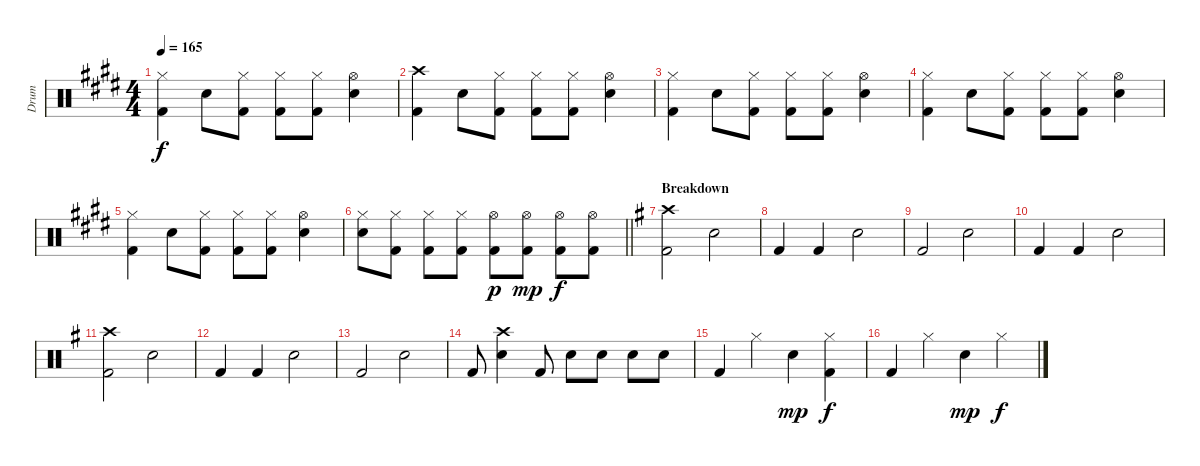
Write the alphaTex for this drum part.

\track ("Drum" "Drum") {instrument percussion}
\staff {score}
\articulation defaults
\ts (4 4)
\tempo 165
\clef neutral
\ks e
("Hi-Hat (closed)" "Kick (hit) 2").4{dy f} "Electric Snare (hit)".8 ("Hi-Hat (closed)" "Kick (hit) 2").8 ("Hi-Hat (closed)" "Kick (hit) 2").8 ("Hi-Hat (closed)" "Kick (hit) 2").8 ("Hi-Hat (open)" "Electric Snare (hit)").4 |
("Crash high (hit)" "Kick (hit) 2").4 "Electric Snare (hit)".8 ("Hi-Hat (closed)" "Kick (hit) 2").8 ("Hi-Hat (closed)" "Kick (hit) 2").8 ("Hi-Hat (closed)" "Kick (hit) 2").8 ("Hi-Hat (open)" "Electric Snare (hit)").4 |
("Hi-Hat (closed)" "Kick (hit) 2").4 "Electric Snare (hit)".8 ("Hi-Hat (closed)" "Kick (hit) 2").8 ("Hi-Hat (closed)" "Kick (hit) 2").8 ("Hi-Hat (closed)" "Kick (hit) 2").8 ("Hi-Hat (open)" "Electric Snare (hit)").4 |
("Hi-Hat (closed)" "Kick (hit) 2").4 "Electric Snare (hit)".8 ("Hi-Hat (closed)" "Kick (hit) 2").8 ("Hi-Hat (closed)" "Kick (hit) 2").8 ("Hi-Hat (closed)" "Kick (hit) 2").8 ("Hi-Hat (open)" "Electric Snare (hit)").4 |
("Hi-Hat (closed)" "Kick (hit) 2").4 "Electric Snare (hit)".8 ("Hi-Hat (closed)" "Kick (hit) 2").8 ("Hi-Hat (closed)" "Kick (hit) 2").8 ("Hi-Hat (closed)" "Kick (hit) 2").8 ("Hi-Hat (open)" "Electric Snare (hit)").4 |
\barLineRight lightlight
("Hi-Hat (closed)" "Electric Snare (hit)").8 ("Hi-Hat (closed)" "Kick (hit) 2").8 ("Hi-Hat (closed)" "Kick (hit) 2").8 ("Hi-Hat (closed)" "Kick (hit) 2").8 ("Hi-Hat (open)" "Kick (hit) 2").8{dy p} ("Hi-Hat (open)" "Kick (hit) 2").8{dy mp} ("Hi-Hat (open)" "Kick (hit) 2").8{dy f} ("Hi-Hat (open)" "Kick (hit) 2").8 |
\section ("" "Breakdown")
\ks g
("Crash high (hit)" "Kick (hit) 2").2 "Electric Snare (hit)".2 |
"Kick (hit) 2".4 "Kick (hit) 2".4 "Electric Snare (hit)".2 |
"Kick (hit) 2".2 "Electric Snare (hit)".2 |
"Kick (hit) 2".4 "Kick (hit) 2".4 "Electric Snare (hit)".2 |
("Crash high (hit)" "Kick (hit) 2").2 "Electric Snare (hit)".2 |
"Kick (hit) 2".4 "Kick (hit) 2".4 "Electric Snare (hit)".2 |
"Kick (hit) 2".2 "Electric Snare (hit)".2 |
"Kick (hit) 2".8 ("Crash high (hit)" "Electric Snare (hit)").4 "Kick (hit) 2".8 "Electric Snare (hit)".8 "Electric Snare (hit)".8 "Electric Snare (hit)".8 "Electric Snare (hit)".8 |
"Kick (hit) 2".4 "Hi-Hat (closed)".4 "Electric Snare (hit)".4{dy mp} ("Hi-Hat (closed)" "Kick (hit) 2").4{dy f} |
"Kick (hit) 2".4 "Hi-Hat (closed)".4 "Electric Snare (hit)".4{dy mp} "Hi-Hat (closed)".4{dy f}
